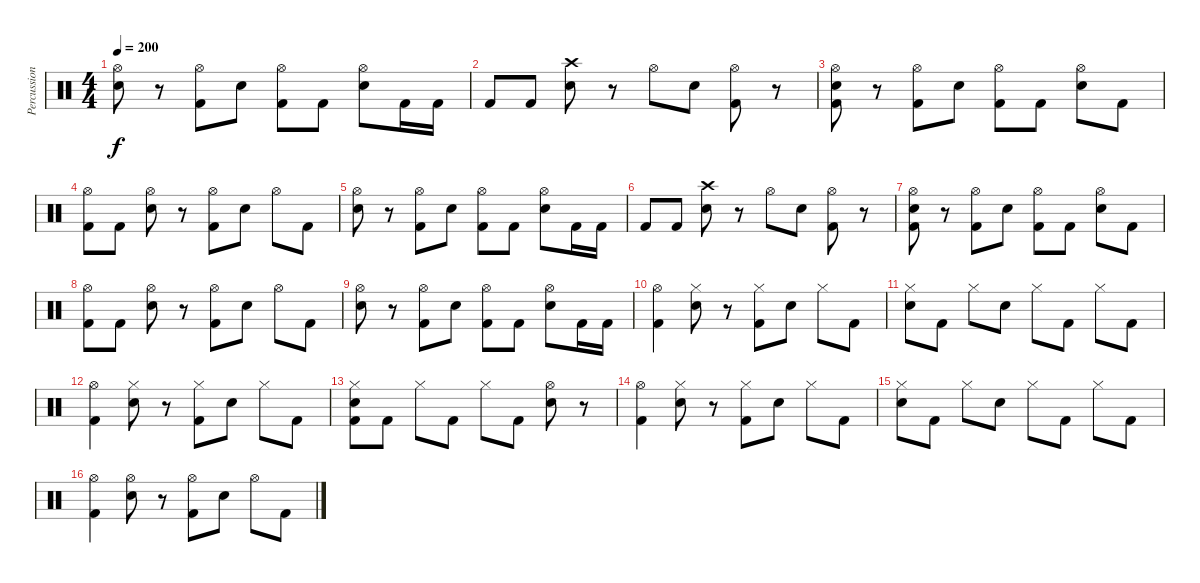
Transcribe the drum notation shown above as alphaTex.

\track ("Percussion" "Percussion") {instrument percussion}
\staff {score}
\articulation defaults
\ts (4 4)
\tempo 200
\clef neutral
\ks c
("Hi-Hat (open)" "Electric Snare (hit)").8{dy f} r.8 ("Hi-Hat (open)" "Kick (hit) 2").8 "Electric Snare (hit)".8 ("Hi-Hat (open)" "Kick (hit) 2").8 "Kick (hit) 2".8 ("Hi-Hat (open)" "Electric Snare (hit)").8 "Kick (hit) 2".16 "Kick (hit) 2".16 |
"Kick (hit) 2".8 "Kick (hit) 2".8 ("Crash high (hit)" "Electric Snare (hit)").8 r.8 "Hi-Hat (open)".8 "Electric Snare (hit)".8 ("Hi-Hat (open)" "Kick (hit) 2").8 r.8 |
("Hi-Hat (open)" "Electric Snare (hit)" "Kick (hit) 2").8 r.8 ("Hi-Hat (open)" "Kick (hit) 2").8 "Electric Snare (hit)".8 ("Hi-Hat (open)" "Kick (hit) 2").8 "Kick (hit) 2".8 ("Hi-Hat (open)" "Electric Snare (hit)").8 "Kick (hit) 2".8 |
("Hi-Hat (open)" "Kick (hit) 2").8 "Kick (hit) 2".8 ("Hi-Hat (open)" "Electric Snare (hit)").8 r.8 ("Hi-Hat (open)" "Kick (hit) 2").8 "Electric Snare (hit)".8 "Hi-Hat (open)".8 "Kick (hit) 2".8 |
("Hi-Hat (open)" "Electric Snare (hit)").8 r.8 ("Hi-Hat (open)" "Kick (hit) 2").8 "Electric Snare (hit)".8 ("Hi-Hat (open)" "Kick (hit) 2").8 "Kick (hit) 2".8 ("Hi-Hat (open)" "Electric Snare (hit)").8 "Kick (hit) 2".16 "Kick (hit) 2".16 |
"Kick (hit) 2".8 "Kick (hit) 2".8 ("Crash high (hit)" "Electric Snare (hit)").8 r.8 "Hi-Hat (open)".8 "Electric Snare (hit)".8 ("Hi-Hat (open)" "Kick (hit) 2").8 r.8 |
("Hi-Hat (open)" "Electric Snare (hit)" "Kick (hit) 2").8 r.8 ("Hi-Hat (open)" "Kick (hit) 2").8 "Electric Snare (hit)".8 ("Hi-Hat (open)" "Kick (hit) 2").8 "Kick (hit) 2".8 ("Hi-Hat (open)" "Electric Snare (hit)").8 "Kick (hit) 2".8 |
("Hi-Hat (open)" "Kick (hit) 2").8 "Kick (hit) 2".8 ("Hi-Hat (open)" "Electric Snare (hit)").8 r.8 ("Hi-Hat (open)" "Kick (hit) 2").8 "Electric Snare (hit)".8 "Hi-Hat (open)".8 "Kick (hit) 2".8 |
("Hi-Hat (open)" "Electric Snare (hit)").8 r.8 ("Hi-Hat (open)" "Kick (hit) 2").8 "Electric Snare (hit)".8 ("Hi-Hat (open)" "Kick (hit) 2").8 "Kick (hit) 2".8 ("Hi-Hat (open)" "Electric Snare (hit)").8 "Kick (hit) 2".16 "Kick (hit) 2".16 |
("Hi-Hat (open)" "Kick (hit) 2").4 ("Hi-Hat (closed)" "Electric Snare (hit)").8 r.8 ("Hi-Hat (closed)" "Kick (hit) 2").8 "Electric Snare (hit)".8 "Hi-Hat (closed)".8 "Kick (hit) 2".8 |
("Hi-Hat (closed)" "Electric Snare (hit)").8 "Kick (hit) 2".8 "Hi-Hat (closed)".8 "Electric Snare (hit)".8 "Hi-Hat (closed)".8 "Kick (hit) 2".8 "Hi-Hat (closed)".8 "Kick (hit) 2".8 |
("Hi-Hat (open)" "Kick (hit) 2").4 ("Hi-Hat (closed)" "Electric Snare (hit)").8 r.8 ("Hi-Hat (closed)" "Kick (hit) 2").8 "Electric Snare (hit)".8 "Hi-Hat (closed)".8 "Kick (hit) 2".8 |
("Hi-Hat (closed)" "Electric Snare (hit)" "Kick (hit) 2").8 "Kick (hit) 2".8 "Hi-Hat (closed)".8 "Kick (hit) 2".8 "Hi-Hat (closed)".8 "Kick (hit) 2".8 ("Hi-Hat (open)" "Electric Snare (hit)").8 r.8 |
("Hi-Hat (open)" "Kick (hit) 2").4 ("Hi-Hat (closed)" "Electric Snare (hit)").8 r.8 ("Hi-Hat (closed)" "Kick (hit) 2").8 "Electric Snare (hit)".8 "Hi-Hat (closed)".8 "Kick (hit) 2".8 |
("Hi-Hat (closed)" "Electric Snare (hit)").8 "Kick (hit) 2".8 "Hi-Hat (closed)".8 "Electric Snare (hit)".8 "Hi-Hat (closed)".8 "Kick (hit) 2".8 "Hi-Hat (closed)".8 "Kick (hit) 2".8 |
("Hi-Hat (open)" "Kick (hit) 2").4 ("Hi-Hat (open)" "Electric Snare (hit)").8 r.8 ("Hi-Hat (open)" "Kick (hit) 2").8 "Electric Snare (hit)".8 "Hi-Hat (open)".8 "Kick (hit) 2".8
